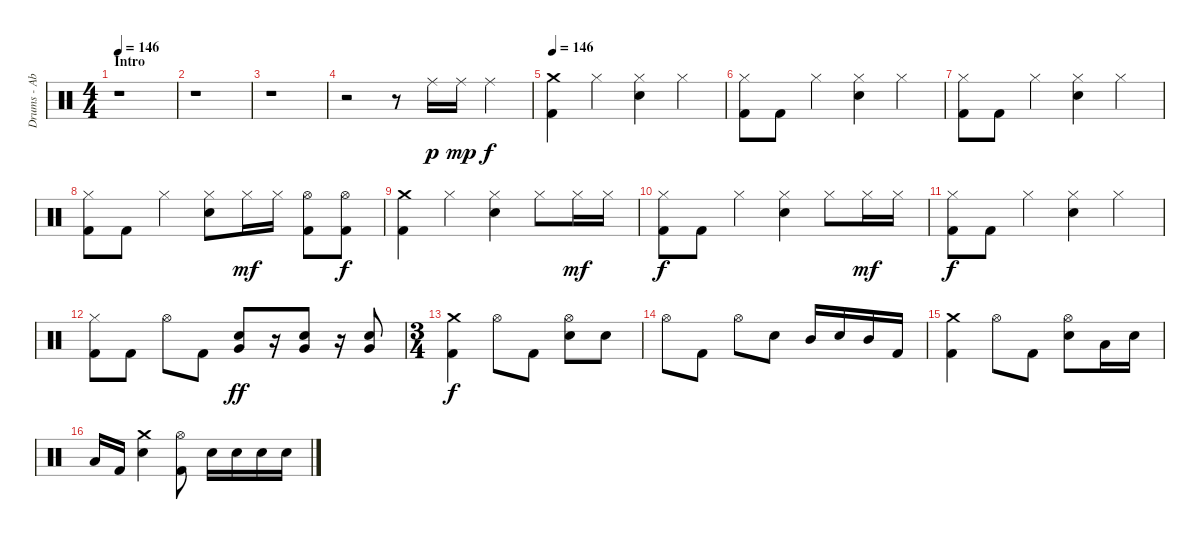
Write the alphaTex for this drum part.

\track ("Drums - Abe Cunningham" "Drums - Ab") {instrument percussion}
\staff {score}
\articulation defaults
\ts (4 4)
\section ("" "Intro")
\tempo 146
\tempo 138
\tempo 146
\clef neutral
\ks c
r.1{dy p} |
r.1 |
r.1 |
r.2 r.8 "Ride (middle)".16 "Ride (middle)".16{dy mp} "Ride (middle)".4{dy f} |
\tempo 146
("Crash medium (hit)" "Kick (hit) 2").4 "Hi-Hat (closed)".4 ("Hi-Hat (closed)" "Electric Snare (hit)").4 "Hi-Hat (closed)".4 |
("Hi-Hat (closed)" "Kick (hit) 2").8 "Kick (hit) 2".8 "Hi-Hat (closed)".4 ("Hi-Hat (closed)" "Electric Snare (hit)").4 "Hi-Hat (closed)".4 |
("Hi-Hat (closed)" "Kick (hit) 2").8 "Kick (hit) 2".8 "Hi-Hat (closed)".4 ("Hi-Hat (closed)" "Electric Snare (hit)").4 "Hi-Hat (closed)".4 |
("Hi-Hat (closed)" "Kick (hit) 2").8 "Kick (hit) 2".8 "Hi-Hat (closed)".4 ("Hi-Hat (closed)" "Electric Snare (hit)").8 "Hi-Hat (closed)".16{dy mf} "Hi-Hat (closed)".16 ("Hi-Hat (open)" "Kick (hit) 2").8 ("Hi-Hat (open)" "Kick (hit) 2").8{dy f} |
("Crash medium (hit)" "Kick (hit) 2").4 "Hi-Hat (closed)".4 ("Hi-Hat (closed)" "Electric Snare (hit)").4 "Hi-Hat (closed)".8 "Hi-Hat (closed)".16{dy mf} "Hi-Hat (closed)".16 |
("Hi-Hat (closed)" "Kick (hit) 2").8{dy f} "Kick (hit) 2".8 "Hi-Hat (closed)".4 ("Hi-Hat (closed)" "Electric Snare (hit)").4 "Hi-Hat (closed)".8 "Hi-Hat (closed)".16{dy mf} "Hi-Hat (closed)".16 |
("Hi-Hat (closed)" "Kick (hit) 2").8{dy f} "Kick (hit) 2".8 "Hi-Hat (closed)".4 ("Hi-Hat (closed)" "Electric Snare (hit)").4 "Hi-Hat (closed)".4 |
("Hi-Hat (closed)" "Kick (hit) 2").8 "Kick (hit) 2".8 "Hi-Hat (open)".8 "Kick (hit) 2".8 ("Electric Snare (hit)" "Very Low Tom (hit)").8{dy ff} r.16 ("Electric Snare (hit)" "Very Low Tom (hit)").8 r.16 ("Electric Snare (hit)" "Very Low Tom (hit)").8 |
\ts (3 4)
("Crash medium (hit)" "Kick (hit) 2").4{dy f} "Hi-Hat (open)".8 "Kick (hit) 2".8 ("Hi-Hat (open)" "Electric Snare (hit)").8 "Electric Snare (hit)".8 |
"Hi-Hat (open)".8 "Kick (hit) 2".8 "Hi-Hat (open)".8 "Electric Snare (hit)".8 "Mid Tom (hit)".16 "Electric Snare (hit)".16 "Mid Tom (hit)".16 "Kick (hit) 2".16 |
("Crash medium (hit)" "Kick (hit) 2").4 "Hi-Hat (open)".8 "Kick (hit) 2".8 ("Hi-Hat (open)" "Electric Snare (hit)").8 "Low Tom (hit)".16 "Electric Snare (hit)".16 |
"Low Tom (hit)".16 "Kick (hit) 2".16 ("Crash medium (hit)" "Electric Snare (hit)").4 ("Hi-Hat (open)" "Kick (hit) 2").8 "Electric Snare (hit)".16 "Electric Snare (hit)".16 "Electric Snare (hit)".16 "Electric Snare (hit)".16
